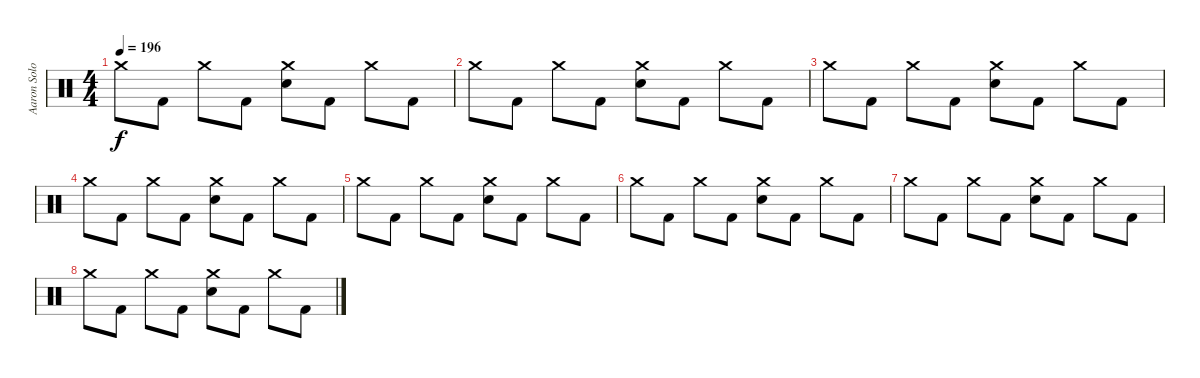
\track ("Aaron Solowoniuk" "Aaron Solo") {instrument percussion}
\staff {score}
\articulation defaults
\ts (4 4)
\tempo 196
\clef neutral
\ks c "Crash medium (hit)".8{dy f} "Kick (hit) 2".8 "Crash medium (hit)".8 "Kick (hit) 2".8
("Crash medium (hit)" "Electric Snare (hit)").8 "Kick (hit) 2".8 "Crash medium (hit)".8 "Kick (hit) 2".8 |
"Crash medium (hit)".8 "Kick (hit) 2".8 "Crash medium (hit)".8 "Kick (hit) 2".8 ("Crash medium (hit)" "Electric Snare (hit)").8 "Kick (hit) 2".8 "Crash medium (hit)".8 "Kick (hit) 2".8 |
"Crash medium (hit)".8 "Kick (hit) 2".8 "Crash medium (hit)".8 "Kick (hit) 2".8 ("Crash medium (hit)" "Electric Snare (hit)").8 "Kick (hit) 2".8 "Crash medium (hit)".8 "Kick (hit) 2".8 |
"Crash medium (hit)".8 "Kick (hit) 2".8 "Crash medium (hit)".8 "Kick (hit) 2".8 ("Crash medium (hit)" "Electric Snare (hit)").8 "Kick (hit) 2".8 "Crash medium (hit)".8 "Kick (hit) 2".8 |
"Crash medium (hit)".8 "Kick (hit) 2".8 "Crash medium (hit)".8 "Kick (hit) 2".8 ("Crash medium (hit)" "Electric Snare (hit)").8 "Kick (hit) 2".8 "Crash medium (hit)".8 "Kick (hit) 2".8 |
"Crash medium (hit)".8 "Kick (hit) 2".8 "Crash medium (hit)".8 "Kick (hit) 2".8 ("Crash medium (hit)" "Electric Snare (hit)").8 "Kick (hit) 2".8 "Crash medium (hit)".8 "Kick (hit) 2".8 |
"Crash medium (hit)".8 "Kick (hit) 2".8 "Crash medium (hit)".8 "Kick (hit) 2".8 ("Crash medium (hit)" "Electric Snare (hit)").8 "Kick (hit) 2".8 "Crash medium (hit)".8 "Kick (hit) 2".8 |
"Crash medium (hit)".8 "Kick (hit) 2".8 "Crash medium (hit)".8 "Kick (hit) 2".8 ("Crash medium (hit)" "Electric Snare (hit)").8 "Kick (hit) 2".8 "Crash medium (hit)".8 "Kick (hit) 2".8
